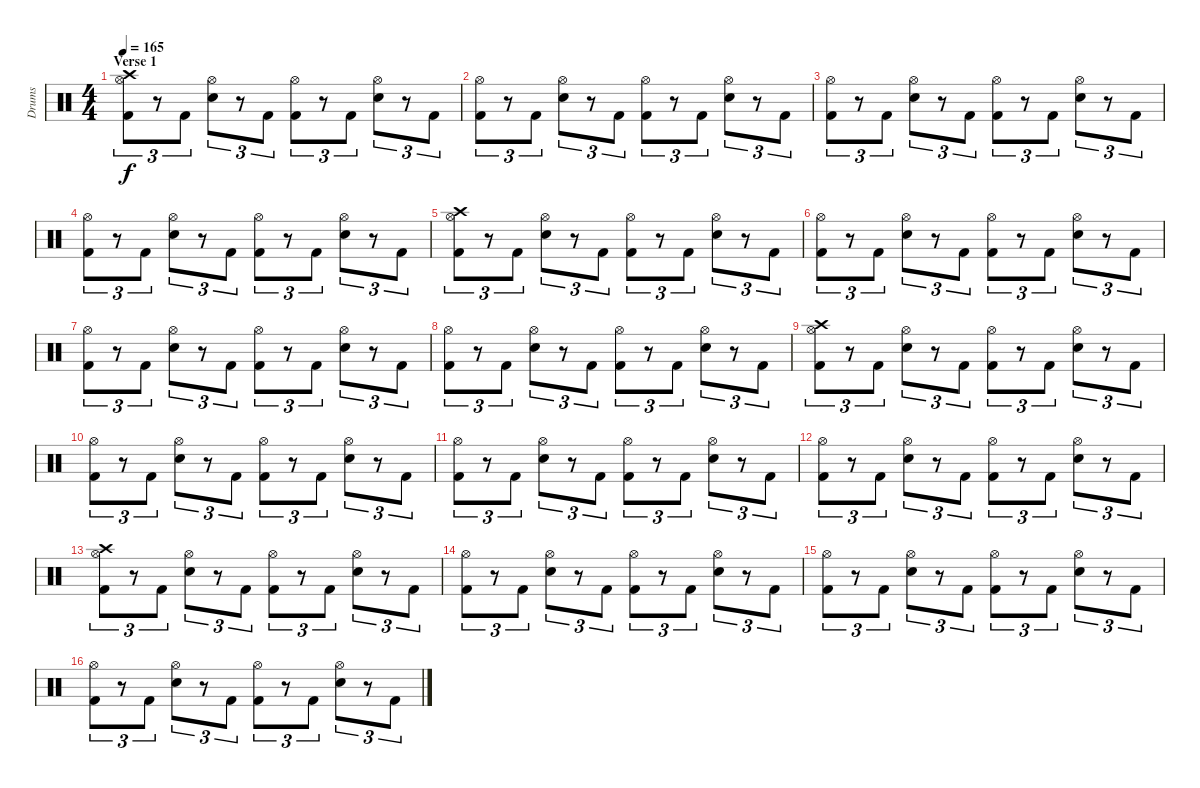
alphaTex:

\track ("Drums" "Drums") {instrument percussion}
\staff {score}
\articulation defaults
\ts (4 4)
\section ("" "Verse 1")
\tempo 165
\clef neutral
\ks c
("Hi-Hat (open)" "Crash high (hit)" "Kick (hit) 2").8{tu (3 2) dy f} r.8{tu (3 2)} "Kick (hit) 2".8{tu (3 2)} ("Hi-Hat (open)" "Snare (hit) 2").8{tu (3 2)} r.8{tu (3 2)} "Kick (hit) 2".8{tu (3 2)} ("Hi-Hat (open)" "Kick (hit) 2").8{tu (3 2)} r.8{tu (3 2)} "Kick (hit) 2".8{tu (3 2)} ("Hi-Hat (open)" "Snare (hit) 2").8{tu (3 2)} r.8{tu (3 2)} "Kick (hit) 2".8{tu (3 2)} |
("Hi-Hat (open)" "Kick (hit) 2").8{tu (3 2)} r.8{tu (3 2)} "Kick (hit) 2".8{tu (3 2)} ("Hi-Hat (open)" "Snare (hit) 2").8{tu (3 2)} r.8{tu (3 2)} "Kick (hit) 2".8{tu (3 2)} ("Hi-Hat (open)" "Kick (hit) 2").8{tu (3 2)} r.8{tu (3 2)} "Kick (hit) 2".8{tu (3 2)} ("Hi-Hat (open)" "Snare (hit) 2").8{tu (3 2)} r.8{tu (3 2)} "Kick (hit) 2".8{tu (3 2)} |
("Hi-Hat (open)" "Kick (hit) 2").8{tu (3 2)} r.8{tu (3 2)} "Kick (hit) 2".8{tu (3 2)} ("Hi-Hat (open)" "Snare (hit) 2").8{tu (3 2)} r.8{tu (3 2)} "Kick (hit) 2".8{tu (3 2)} ("Hi-Hat (open)" "Kick (hit) 2").8{tu (3 2)} r.8{tu (3 2)} "Kick (hit) 2".8{tu (3 2)} ("Hi-Hat (open)" "Snare (hit) 2").8{tu (3 2)} r.8{tu (3 2)} "Kick (hit) 2".8{tu (3 2)} |
("Hi-Hat (open)" "Kick (hit) 2").8{tu (3 2)} r.8{tu (3 2)} "Kick (hit) 2".8{tu (3 2)} ("Hi-Hat (open)" "Snare (hit) 2").8{tu (3 2)} r.8{tu (3 2)} "Kick (hit) 2".8{tu (3 2)} ("Hi-Hat (open)" "Kick (hit) 2").8{tu (3 2)} r.8{tu (3 2)} "Kick (hit) 2".8{tu (3 2)} ("Hi-Hat (open)" "Snare (hit) 2").8{tu (3 2)} r.8{tu (3 2)} "Kick (hit) 2".8{tu (3 2)} |
("Hi-Hat (open)" "Crash high (hit)" "Kick (hit) 2").8{tu (3 2)} r.8{tu (3 2)} "Kick (hit) 2".8{tu (3 2)} ("Hi-Hat (open)" "Snare (hit) 2").8{tu (3 2)} r.8{tu (3 2)} "Kick (hit) 2".8{tu (3 2)} ("Hi-Hat (open)" "Kick (hit) 2").8{tu (3 2)} r.8{tu (3 2)} "Kick (hit) 2".8{tu (3 2)} ("Hi-Hat (open)" "Snare (hit) 2").8{tu (3 2)} r.8{tu (3 2)} "Kick (hit) 2".8{tu (3 2)} |
("Hi-Hat (open)" "Kick (hit) 2").8{tu (3 2)} r.8{tu (3 2)} "Kick (hit) 2".8{tu (3 2)} ("Hi-Hat (open)" "Snare (hit) 2").8{tu (3 2)} r.8{tu (3 2)} "Kick (hit) 2".8{tu (3 2)} ("Hi-Hat (open)" "Kick (hit) 2").8{tu (3 2)} r.8{tu (3 2)} "Kick (hit) 2".8{tu (3 2)} ("Hi-Hat (open)" "Snare (hit) 2").8{tu (3 2)} r.8{tu (3 2)} "Kick (hit) 2".8{tu (3 2)} |
("Hi-Hat (open)" "Kick (hit) 2").8{tu (3 2)} r.8{tu (3 2)} "Kick (hit) 2".8{tu (3 2)} ("Hi-Hat (open)" "Snare (hit) 2").8{tu (3 2)} r.8{tu (3 2)} "Kick (hit) 2".8{tu (3 2)} ("Hi-Hat (open)" "Kick (hit) 2").8{tu (3 2)} r.8{tu (3 2)} "Kick (hit) 2".8{tu (3 2)} ("Hi-Hat (open)" "Snare (hit) 2").8{tu (3 2)} r.8{tu (3 2)} "Kick (hit) 2".8{tu (3 2)} |
("Hi-Hat (open)" "Kick (hit) 2").8{tu (3 2)} r.8{tu (3 2)} "Kick (hit) 2".8{tu (3 2)} ("Hi-Hat (open)" "Snare (hit) 2").8{tu (3 2)} r.8{tu (3 2)} "Kick (hit) 2".8{tu (3 2)} ("Hi-Hat (open)" "Kick (hit) 2").8{tu (3 2)} r.8{tu (3 2)} "Kick (hit) 2".8{tu (3 2)} ("Hi-Hat (open)" "Snare (hit) 2").8{tu (3 2)} r.8{tu (3 2)} "Kick (hit) 2".8{tu (3 2)} |
("Hi-Hat (open)" "Crash high (hit)" "Kick (hit) 2").8{tu (3 2)} r.8{tu (3 2)} "Kick (hit) 2".8{tu (3 2)} ("Hi-Hat (open)" "Snare (hit) 2").8{tu (3 2)} r.8{tu (3 2)} "Kick (hit) 2".8{tu (3 2)} ("Hi-Hat (open)" "Kick (hit) 2").8{tu (3 2)} r.8{tu (3 2)} "Kick (hit) 2".8{tu (3 2)} ("Hi-Hat (open)" "Snare (hit) 2").8{tu (3 2)} r.8{tu (3 2)} "Kick (hit) 2".8{tu (3 2)} |
("Hi-Hat (open)" "Kick (hit) 2").8{tu (3 2)} r.8{tu (3 2)} "Kick (hit) 2".8{tu (3 2)} ("Hi-Hat (open)" "Snare (hit) 2").8{tu (3 2)} r.8{tu (3 2)} "Kick (hit) 2".8{tu (3 2)} ("Hi-Hat (open)" "Kick (hit) 2").8{tu (3 2)} r.8{tu (3 2)} "Kick (hit) 2".8{tu (3 2)} ("Hi-Hat (open)" "Snare (hit) 2").8{tu (3 2)} r.8{tu (3 2)} "Kick (hit) 2".8{tu (3 2)} |
("Hi-Hat (open)" "Kick (hit) 2").8{tu (3 2)} r.8{tu (3 2)} "Kick (hit) 2".8{tu (3 2)} ("Hi-Hat (open)" "Snare (hit) 2").8{tu (3 2)} r.8{tu (3 2)} "Kick (hit) 2".8{tu (3 2)} ("Hi-Hat (open)" "Kick (hit) 2").8{tu (3 2)} r.8{tu (3 2)} "Kick (hit) 2".8{tu (3 2)} ("Hi-Hat (open)" "Snare (hit) 2").8{tu (3 2)} r.8{tu (3 2)} "Kick (hit) 2".8{tu (3 2)} |
("Hi-Hat (open)" "Kick (hit) 2").8{tu (3 2)} r.8{tu (3 2)} "Kick (hit) 2".8{tu (3 2)} ("Hi-Hat (open)" "Snare (hit) 2").8{tu (3 2)} r.8{tu (3 2)} "Kick (hit) 2".8{tu (3 2)} ("Hi-Hat (open)" "Kick (hit) 2").8{tu (3 2)} r.8{tu (3 2)} "Kick (hit) 2".8{tu (3 2)} ("Hi-Hat (open)" "Snare (hit) 2").8{tu (3 2)} r.8{tu (3 2)} "Kick (hit) 2".8{tu (3 2)} |
("Hi-Hat (open)" "Crash high (hit)" "Kick (hit) 2").8{tu (3 2)} r.8{tu (3 2)} "Kick (hit) 2".8{tu (3 2)} ("Hi-Hat (open)" "Snare (hit) 2").8{tu (3 2)} r.8{tu (3 2)} "Kick (hit) 2".8{tu (3 2)} ("Hi-Hat (open)" "Kick (hit) 2").8{tu (3 2)} r.8{tu (3 2)} "Kick (hit) 2".8{tu (3 2)} ("Hi-Hat (open)" "Snare (hit) 2").8{tu (3 2)} r.8{tu (3 2)} "Kick (hit) 2".8{tu (3 2)} |
("Hi-Hat (open)" "Kick (hit) 2").8{tu (3 2)} r.8{tu (3 2)} "Kick (hit) 2".8{tu (3 2)} ("Hi-Hat (open)" "Snare (hit) 2").8{tu (3 2)} r.8{tu (3 2)} "Kick (hit) 2".8{tu (3 2)} ("Hi-Hat (open)" "Kick (hit) 2").8{tu (3 2)} r.8{tu (3 2)} "Kick (hit) 2".8{tu (3 2)} ("Hi-Hat (open)" "Snare (hit) 2").8{tu (3 2)} r.8{tu (3 2)} "Kick (hit) 2".8{tu (3 2)} |
("Hi-Hat (open)" "Kick (hit) 2").8{tu (3 2)} r.8{tu (3 2)} "Kick (hit) 2".8{tu (3 2)} ("Hi-Hat (open)" "Snare (hit) 2").8{tu (3 2)} r.8{tu (3 2)} "Kick (hit) 2".8{tu (3 2)} ("Hi-Hat (open)" "Kick (hit) 2").8{tu (3 2)} r.8{tu (3 2)} "Kick (hit) 2".8{tu (3 2)} ("Hi-Hat (open)" "Snare (hit) 2").8{tu (3 2)} r.8{tu (3 2)} "Kick (hit) 2".8{tu (3 2)} |
("Hi-Hat (open)" "Kick (hit) 2").8{tu (3 2)} r.8{tu (3 2)} "Kick (hit) 2".8{tu (3 2)} ("Hi-Hat (open)" "Snare (hit) 2").8{tu (3 2)} r.8{tu (3 2)} "Kick (hit) 2".8{tu (3 2)} ("Hi-Hat (open)" "Kick (hit) 2").8{tu (3 2)} r.8{tu (3 2)} "Kick (hit) 2".8{tu (3 2)} ("Hi-Hat (open)" "Snare (hit) 2").8{tu (3 2)} r.8{tu (3 2)} "Kick (hit) 2".8{tu (3 2)}
